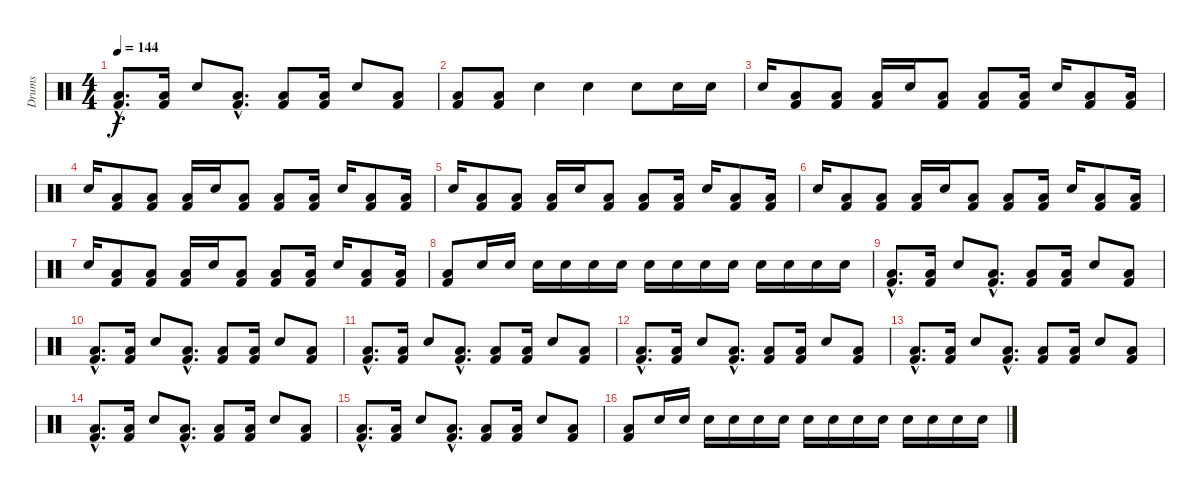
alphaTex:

\track ("Drums" "Drums") {instrument percussion}
\staff {score}
\articulation defaults
\ts (4 4)
\tempo 144
\clef neutral
\ks c
("Low Floor Tom (hit)"{hac} "Kick (hit) 2"{hac}).8{d dy f} ("Low Floor Tom (hit)" "Kick (hit) 2").16 "Snare (hit) 2".8 ("Low Floor Tom (hit)"{hac} "Kick (hit) 2"{hac}).8{d} ("Low Floor Tom (hit)" "Kick (hit) 2").8 ("Low Floor Tom (hit)" "Kick (hit) 2").16 "Snare (hit) 2".8 ("Low Floor Tom (hit)" "Kick (hit) 2").8 |
("Low Floor Tom (hit)" "Kick (hit) 2").8 ("Low Floor Tom (hit)" "Kick (hit) 2").8 "Snare (hit) 2".4 "Snare (hit) 2".4 "Snare (hit) 2".8 "Snare (hit) 2".16 "Snare (hit) 2".16 |
"Snare (hit) 2".16 ("Low Floor Tom (hit)" "Kick (hit) 2").8 ("Low Floor Tom (hit)" "Kick (hit) 2").8 ("Low Floor Tom (hit)" "Kick (hit) 2").16 "Snare (hit) 2".16 ("Low Floor Tom (hit)" "Kick (hit) 2").8 ("Low Floor Tom (hit)" "Kick (hit) 2").8 ("Low Floor Tom (hit)" "Kick (hit) 2").16 "Snare (hit) 2".16 ("Low Floor Tom (hit)" "Kick (hit) 2").8 ("Low Floor Tom (hit)" "Kick (hit) 2").16 |
"Snare (hit) 2".16 ("Low Floor Tom (hit)" "Kick (hit) 2").8 ("Low Floor Tom (hit)" "Kick (hit) 2").8 ("Low Floor Tom (hit)" "Kick (hit) 2").16 "Snare (hit) 2".16 ("Low Floor Tom (hit)" "Kick (hit) 2").8 ("Low Floor Tom (hit)" "Kick (hit) 2").8 ("Low Floor Tom (hit)" "Kick (hit) 2").16 "Snare (hit) 2".16 ("Low Floor Tom (hit)" "Kick (hit) 2").8 ("Low Floor Tom (hit)" "Kick (hit) 2").16 |
"Snare (hit) 2".16 ("Low Floor Tom (hit)" "Kick (hit) 2").8 ("Low Floor Tom (hit)" "Kick (hit) 2").8 ("Low Floor Tom (hit)" "Kick (hit) 2").16 "Snare (hit) 2".16 ("Low Floor Tom (hit)" "Kick (hit) 2").8 ("Low Floor Tom (hit)" "Kick (hit) 2").8 ("Low Floor Tom (hit)" "Kick (hit) 2").16 "Snare (hit) 2".16 ("Low Floor Tom (hit)" "Kick (hit) 2").8 ("Low Floor Tom (hit)" "Kick (hit) 2").16 |
"Snare (hit) 2".16 ("Low Floor Tom (hit)" "Kick (hit) 2").8 ("Low Floor Tom (hit)" "Kick (hit) 2").8 ("Low Floor Tom (hit)" "Kick (hit) 2").16 "Snare (hit) 2".16 ("Low Floor Tom (hit)" "Kick (hit) 2").8 ("Low Floor Tom (hit)" "Kick (hit) 2").8 ("Low Floor Tom (hit)" "Kick (hit) 2").16 "Snare (hit) 2".16 ("Low Floor Tom (hit)" "Kick (hit) 2").8 ("Low Floor Tom (hit)" "Kick (hit) 2").16 |
"Snare (hit) 2".16 ("Low Floor Tom (hit)" "Kick (hit) 2").8 ("Low Floor Tom (hit)" "Kick (hit) 2").8 ("Low Floor Tom (hit)" "Kick (hit) 2").16 "Snare (hit) 2".16 ("Low Floor Tom (hit)" "Kick (hit) 2").8 ("Low Floor Tom (hit)" "Kick (hit) 2").8 ("Low Floor Tom (hit)" "Kick (hit) 2").16 "Snare (hit) 2".16 ("Low Floor Tom (hit)" "Kick (hit) 2").8 ("Low Floor Tom (hit)" "Kick (hit) 2").16 |
("Low Floor Tom (hit)" "Kick (hit) 2").8 "Snare (hit) 2".16 "Snare (hit) 2".16 "Snare (hit) 2".16 "Snare (hit) 2".16 "Snare (hit) 2".16 "Snare (hit) 2".16 "Snare (hit) 2".16 "Snare (hit) 2".16 "Snare (hit) 2".16 "Snare (hit) 2".16 "Snare (hit) 2".16 "Snare (hit) 2".16 "Snare (hit) 2".16 "Snare (hit) 2".16 |
("Low Floor Tom (hit)"{hac} "Kick (hit) 2"{hac}).8{d} ("Low Floor Tom (hit)" "Kick (hit) 2").16 "Snare (hit) 2".8 ("Low Floor Tom (hit)"{hac} "Kick (hit) 2"{hac}).8{d} ("Low Floor Tom (hit)" "Kick (hit) 2").8 ("Low Floor Tom (hit)" "Kick (hit) 2").16 "Snare (hit) 2".8 ("Low Floor Tom (hit)" "Kick (hit) 2").8 |
("Low Floor Tom (hit)"{hac} "Kick (hit) 2"{hac}).8{d} ("Low Floor Tom (hit)" "Kick (hit) 2").16 "Snare (hit) 2".8 ("Low Floor Tom (hit)"{hac} "Kick (hit) 2"{hac}).8{d} ("Low Floor Tom (hit)" "Kick (hit) 2").8 ("Low Floor Tom (hit)" "Kick (hit) 2").16 "Snare (hit) 2".8 ("Low Floor Tom (hit)" "Kick (hit) 2").8 |
("Low Floor Tom (hit)"{hac} "Kick (hit) 2"{hac}).8{d} ("Low Floor Tom (hit)" "Kick (hit) 2").16 "Snare (hit) 2".8 ("Low Floor Tom (hit)"{hac} "Kick (hit) 2"{hac}).8{d} ("Low Floor Tom (hit)" "Kick (hit) 2").8 ("Low Floor Tom (hit)" "Kick (hit) 2").16 "Snare (hit) 2".8 ("Low Floor Tom (hit)" "Kick (hit) 2").8 |
("Low Floor Tom (hit)"{hac} "Kick (hit) 2"{hac}).8{d} ("Low Floor Tom (hit)" "Kick (hit) 2").16 "Snare (hit) 2".8 ("Low Floor Tom (hit)"{hac} "Kick (hit) 2"{hac}).8{d} ("Low Floor Tom (hit)" "Kick (hit) 2").8 ("Low Floor Tom (hit)" "Kick (hit) 2").16 "Snare (hit) 2".8 ("Low Floor Tom (hit)" "Kick (hit) 2").8 |
("Low Floor Tom (hit)"{hac} "Kick (hit) 2"{hac}).8{d} ("Low Floor Tom (hit)" "Kick (hit) 2").16 "Snare (hit) 2".8 ("Low Floor Tom (hit)"{hac} "Kick (hit) 2"{hac}).8{d} ("Low Floor Tom (hit)" "Kick (hit) 2").8 ("Low Floor Tom (hit)" "Kick (hit) 2").16 "Snare (hit) 2".8 ("Low Floor Tom (hit)" "Kick (hit) 2").8 |
("Low Floor Tom (hit)"{hac} "Kick (hit) 2"{hac}).8{d} ("Low Floor Tom (hit)" "Kick (hit) 2").16 "Snare (hit) 2".8 ("Low Floor Tom (hit)"{hac} "Kick (hit) 2"{hac}).8{d} ("Low Floor Tom (hit)" "Kick (hit) 2").8 ("Low Floor Tom (hit)" "Kick (hit) 2").16 "Snare (hit) 2".8 ("Low Floor Tom (hit)" "Kick (hit) 2").8 |
("Low Floor Tom (hit)"{hac} "Kick (hit) 2"{hac}).8{d} ("Low Floor Tom (hit)" "Kick (hit) 2").16 "Snare (hit) 2".8 ("Low Floor Tom (hit)"{hac} "Kick (hit) 2"{hac}).8{d} ("Low Floor Tom (hit)" "Kick (hit) 2").8 ("Low Floor Tom (hit)" "Kick (hit) 2").16 "Snare (hit) 2".8 ("Low Floor Tom (hit)" "Kick (hit) 2").8 |
("Low Floor Tom (hit)" "Kick (hit) 2").8 "Snare (hit) 2".16 "Snare (hit) 2".16 "Snare (hit) 2".16 "Snare (hit) 2".16 "Snare (hit) 2".16 "Snare (hit) 2".16 "Snare (hit) 2".16 "Snare (hit) 2".16 "Snare (hit) 2".16 "Snare (hit) 2".16 "Snare (hit) 2".16 "Snare (hit) 2".16 "Snare (hit) 2".16 "Snare (hit) 2".16
